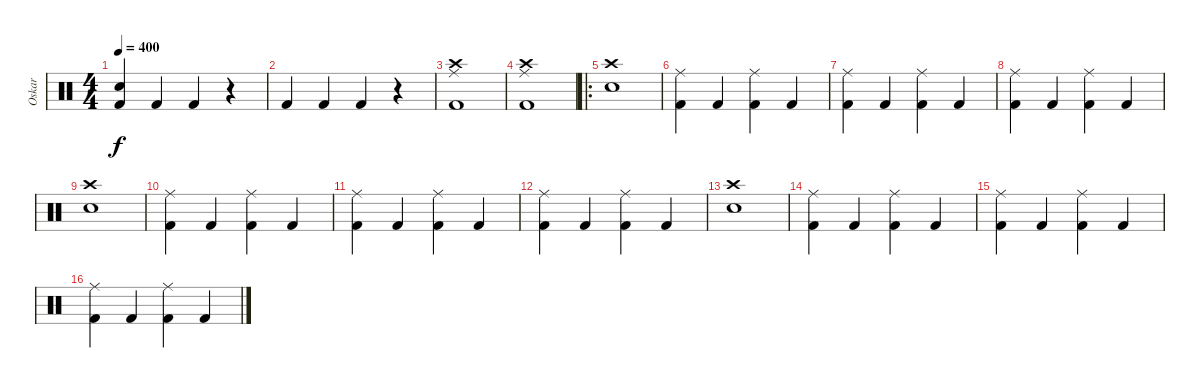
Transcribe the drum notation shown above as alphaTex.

\track ("Oskar" "Oskar") {instrument percussion}
\staff {score}
\articulation defaults
\ts (4 4)
\tempo 400
\clef neutral
\ks c
("Electric Snare (hit)" "Kick (hit) 2").4{dy f} "Kick (hit) 2".4 "Kick (hit) 2".4 r.4 |
"Kick (hit) 2".4 "Kick (hit) 2".4 "Kick (hit) 2".4 r.4 |
("Crash high (hit)" "Ride (middle)" "Kick (hit) 2").1 |
("Crash high (hit)" "Ride (middle)" "Kick (hit) 2").1 |
\ro
("Crash high (hit)" "Electric Snare (hit)").1 |
("Ride (middle)" "Kick (hit) 2").4 "Kick (hit) 2".4 ("Ride (middle)" "Kick (hit) 2").4 "Kick (hit) 2".4 |
("Ride (middle)" "Kick (hit) 2").4 "Kick (hit) 2".4 ("Ride (middle)" "Kick (hit) 2").4 "Kick (hit) 2".4 |
("Ride (middle)" "Kick (hit) 2").4 "Kick (hit) 2".4 ("Ride (middle)" "Kick (hit) 2").4 "Kick (hit) 2".4 |
("Crash high (hit)" "Electric Snare (hit)").1 |
("Ride (middle)" "Kick (hit) 2").4 "Kick (hit) 2".4 ("Ride (middle)" "Kick (hit) 2").4 "Kick (hit) 2".4 |
("Ride (middle)" "Kick (hit) 2").4 "Kick (hit) 2".4 ("Ride (middle)" "Kick (hit) 2").4 "Kick (hit) 2".4 |
("Ride (middle)" "Kick (hit) 2").4 "Kick (hit) 2".4 ("Ride (middle)" "Kick (hit) 2").4 "Kick (hit) 2".4 |
("Crash high (hit)" "Electric Snare (hit)").1 |
("Ride (middle)" "Kick (hit) 2").4 "Kick (hit) 2".4 ("Ride (middle)" "Kick (hit) 2").4 "Kick (hit) 2".4 |
("Ride (middle)" "Kick (hit) 2").4 "Kick (hit) 2".4 ("Ride (middle)" "Kick (hit) 2").4 "Kick (hit) 2".4 |
("Ride (middle)" "Kick (hit) 2").4 "Kick (hit) 2".4 ("Ride (middle)" "Kick (hit) 2").4 "Kick (hit) 2".4
